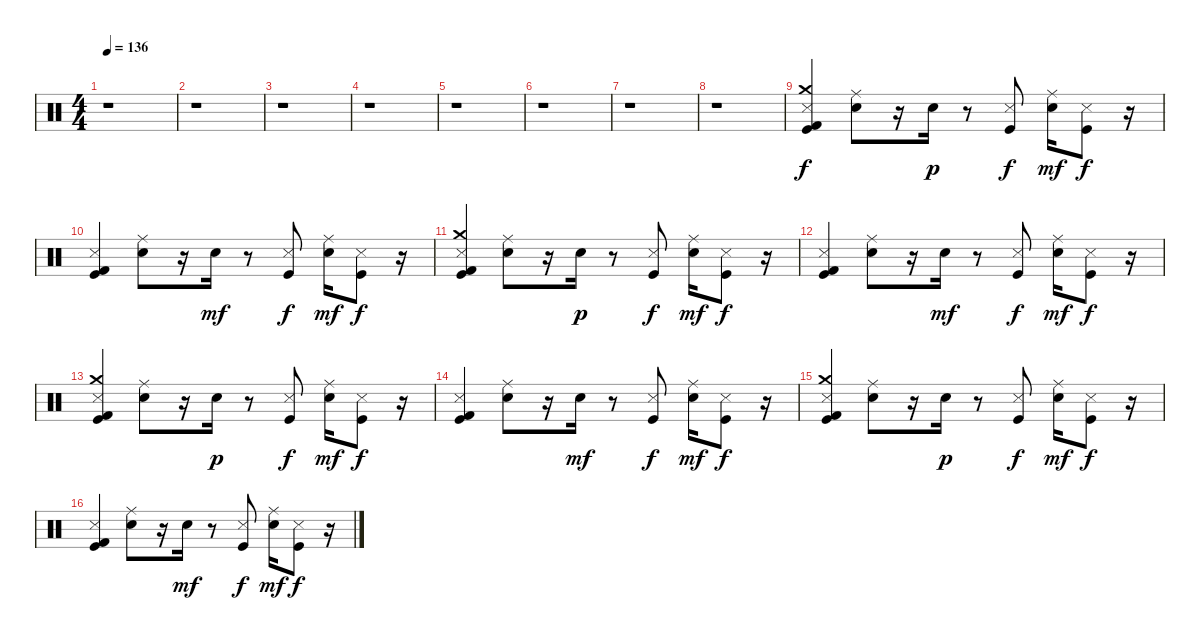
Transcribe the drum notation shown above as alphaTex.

\track "" {instrument percussion}
\staff {score}
\articulation defaults
\ts (4 4)
\tempo 136
\clef neutral
\ks c
r.1{dy f} |
r.1 |
r.1 |
r.1 |
r.1 |
r.1 |
r.1 |
r.1 |
("Metronome (hit)" "Kick (hit) 2" "Crash medium (hit)" "Kick (hit)").4 ("Ride (middle)" "Metronome (bell)").8 r.16 "Electric Snare (hit)".16{dy p} r.8 ("Metronome (hit)" "Kick (hit)").8{dy f} ("Ride (middle)" "Electric Snare (hit)").16{dy mf} ("Metronome (hit)" "Kick (hit)").8{dy f} r.16 |
("Metronome (hit)" "Kick (hit) 2" "Kick (hit)").4 ("Ride (middle)" "Metronome (bell)").8 r.16 "Electric Snare (hit)".16{dy mf} r.8 ("Metronome (hit)" "Kick (hit)").8{dy f} ("Ride (middle)" "Electric Snare (hit)").16{dy mf} ("Metronome (hit)" "Kick (hit)").8{dy f} r.16 |
("Metronome (hit)" "Kick (hit) 2" "Crash medium (hit)" "Kick (hit)").4 ("Ride (middle)" "Metronome (bell)").8 r.16 "Electric Snare (hit)".16{dy p} r.8 ("Metronome (hit)" "Kick (hit)").8{dy f} ("Ride (middle)" "Electric Snare (hit)").16{dy mf} ("Metronome (hit)" "Kick (hit)").8{dy f} r.16 |
("Metronome (hit)" "Kick (hit) 2" "Kick (hit)").4 ("Ride (middle)" "Metronome (bell)").8 r.16 "Electric Snare (hit)".16{dy mf} r.8 ("Metronome (hit)" "Kick (hit)").8{dy f} ("Ride (middle)" "Electric Snare (hit)").16{dy mf} ("Metronome (hit)" "Kick (hit)").8{dy f} r.16 |
("Metronome (hit)" "Kick (hit) 2" "Crash medium (hit)" "Kick (hit)").4 ("Ride (middle)" "Metronome (bell)").8 r.16 "Electric Snare (hit)".16{dy p} r.8 ("Metronome (hit)" "Kick (hit)").8{dy f} ("Ride (middle)" "Electric Snare (hit)").16{dy mf} ("Metronome (hit)" "Kick (hit)").8{dy f} r.16 |
("Metronome (hit)" "Kick (hit) 2" "Kick (hit)").4 ("Ride (middle)" "Metronome (bell)").8 r.16 "Electric Snare (hit)".16{dy mf} r.8 ("Metronome (hit)" "Kick (hit)").8{dy f} ("Ride (middle)" "Electric Snare (hit)").16{dy mf} ("Metronome (hit)" "Kick (hit)").8{dy f} r.16 |
("Metronome (hit)" "Kick (hit) 2" "Crash medium (hit)" "Kick (hit)").4 ("Ride (middle)" "Metronome (bell)").8 r.16 "Electric Snare (hit)".16{dy p} r.8 ("Metronome (hit)" "Kick (hit)").8{dy f} ("Ride (middle)" "Electric Snare (hit)").16{dy mf} ("Metronome (hit)" "Kick (hit)").8{dy f} r.16 |
("Metronome (hit)" "Kick (hit) 2" "Kick (hit)").4 ("Ride (middle)" "Metronome (bell)").8 r.16 "Electric Snare (hit)".16{dy mf} r.8 ("Metronome (hit)" "Kick (hit)").8{dy f} ("Ride (middle)" "Electric Snare (hit)").16{dy mf} ("Metronome (hit)" "Kick (hit)").8{dy f} r.16
